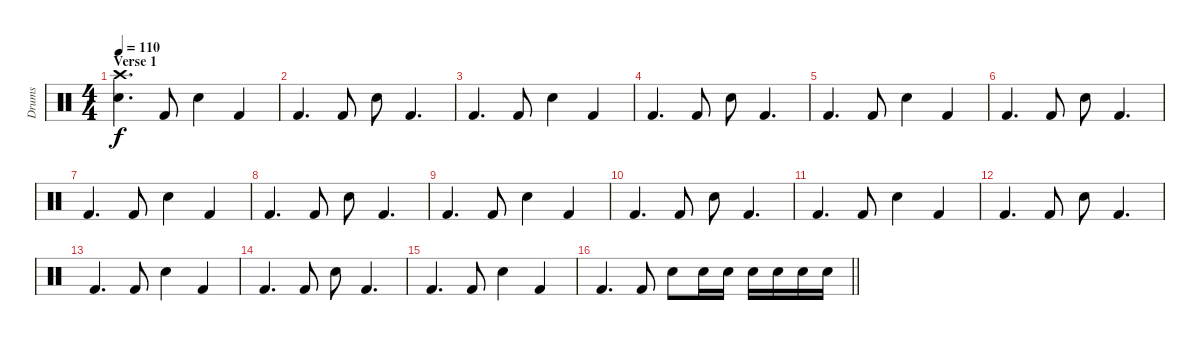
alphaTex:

\track ("Drums" "Drums") {instrument percussion}
\staff {score}
\articulation defaults
\ts (4 4)
\section ("" "Verse 1")
\tempo 110
\clef neutral
\ks c
("Crash high (hit)" "Electric Snare (hit)").4{d dy f} "Kick (hit) 2".8 "Electric Snare (hit)".4 "Kick (hit) 2".4 |
"Kick (hit) 2".4{d} "Kick (hit) 2".8 "Electric Snare (hit)".8 "Kick (hit) 2".4{d} |
"Kick (hit) 2".4{d} "Kick (hit) 2".8 "Electric Snare (hit)".4 "Kick (hit) 2".4 |
"Kick (hit) 2".4{d} "Kick (hit) 2".8 "Electric Snare (hit)".8 "Kick (hit) 2".4{d} |
"Kick (hit) 2".4{d} "Kick (hit) 2".8 "Electric Snare (hit)".4 "Kick (hit) 2".4 |
"Kick (hit) 2".4{d} "Kick (hit) 2".8 "Electric Snare (hit)".8 "Kick (hit) 2".4{d} |
"Kick (hit) 2".4{d} "Kick (hit) 2".8 "Electric Snare (hit)".4 "Kick (hit) 2".4 |
"Kick (hit) 2".4{d} "Kick (hit) 2".8 "Electric Snare (hit)".8 "Kick (hit) 2".4{d} |
"Kick (hit) 2".4{d} "Kick (hit) 2".8 "Electric Snare (hit)".4 "Kick (hit) 2".4 |
"Kick (hit) 2".4{d} "Kick (hit) 2".8 "Electric Snare (hit)".8 "Kick (hit) 2".4{d} |
"Kick (hit) 2".4{d} "Kick (hit) 2".8 "Electric Snare (hit)".4 "Kick (hit) 2".4 |
"Kick (hit) 2".4{d} "Kick (hit) 2".8 "Electric Snare (hit)".8 "Kick (hit) 2".4{d} |
"Kick (hit) 2".4{d} "Kick (hit) 2".8 "Electric Snare (hit)".4 "Kick (hit) 2".4 |
"Kick (hit) 2".4{d} "Kick (hit) 2".8 "Electric Snare (hit)".8 "Kick (hit) 2".4{d} |
"Kick (hit) 2".4{d} "Kick (hit) 2".8 "Electric Snare (hit)".4 "Kick (hit) 2".4 |
\barLineRight lightlight "Kick (hit) 2".4{d} "Kick (hit) 2".8 "Electric Snare (hit)".8 "Electric Snare (hit)".16 "Electric Snare (hit)".16 "Electric Snare (hit)".16 "Electric Snare (hit)".16 "Electric Snare (hit)".16 "Electric Snare (hit)".16
